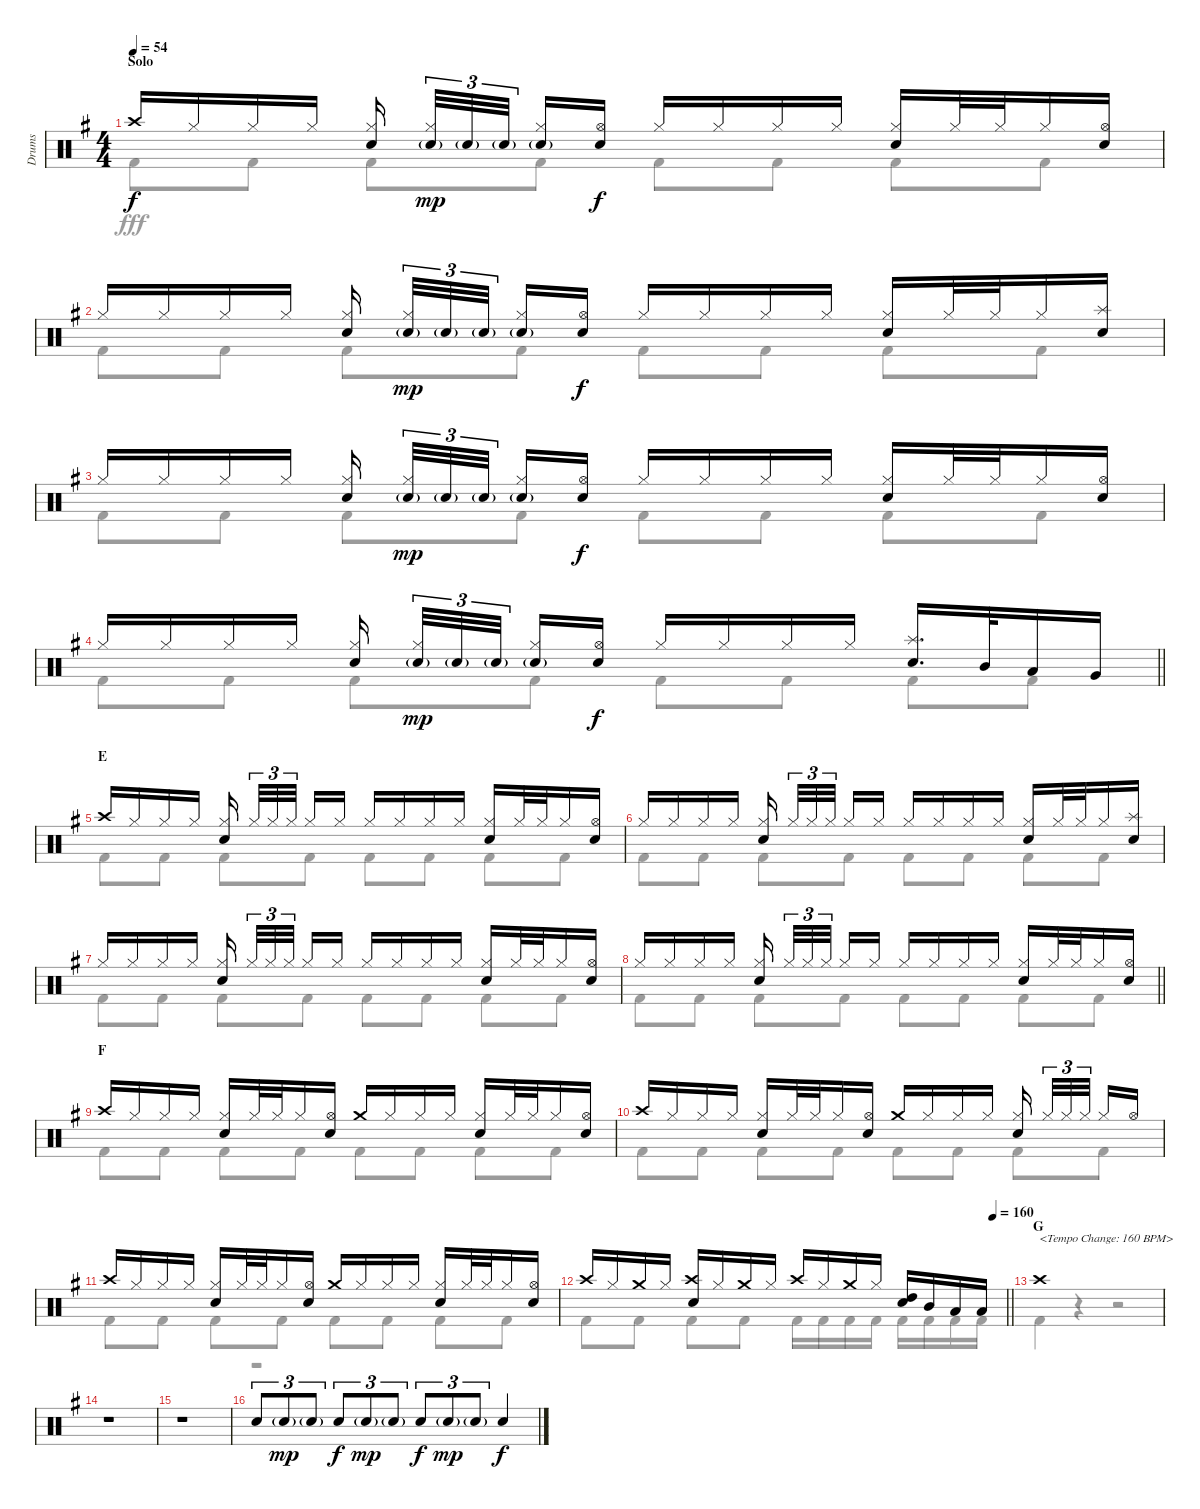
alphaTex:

\track ("Drums" "Drums") {instrument percussion}
\staff {score}
\articulation defaults
\voice
\ts (4 4)
\section ("" "Solo")
\tempo 54
\clef neutral
\ks g "Crash high (hit)".16{dy f} "Hi-Hat (closed)".16 "Hi-Hat (closed)".16 "Hi-Hat (closed)".16
("Hi-Hat (closed)" "Snare (hit) 2").16{beam splitsecondary} ("Hi-Hat (closed)" "Snare (hit) 2"{g}).32{tu (3 2) dy mp} "Snare (hit) 2"{g}.32{tu (3 2)} "Snare (hit) 2"{g}.32{tu (3 2) beam splitsecondary} ("Hi-Hat (closed)" "Snare (hit) 2"{g}).16 ("Hi-Hat (open)" "Snare (hit) 2").16{dy f} "Hi-Hat (closed)".16 "Hi-Hat (closed)".16 "Hi-Hat (closed)".16 "Hi-Hat (closed)".16 ("Hi-Hat (closed)" "Snare (hit) 2").16 "Hi-Hat (closed)".32 "Hi-Hat (closed)".32 "Hi-Hat (closed)".16 ("Hi-Hat (open)" "Snare (hit) 2").16 |
"Hi-Hat (closed)".16 "Hi-Hat (closed)".16 "Hi-Hat (closed)".16 "Hi-Hat (closed)".16 ("Hi-Hat (closed)" "Snare (hit) 2").16{beam splitsecondary} ("Hi-Hat (closed)" "Snare (hit) 2"{g}).32{tu (3 2) dy mp} "Snare (hit) 2"{g}.32{tu (3 2)} "Snare (hit) 2"{g}.32{tu (3 2) beam splitsecondary} ("Hi-Hat (closed)" "Snare (hit) 2"{g}).16 ("Hi-Hat (open)" "Snare (hit) 2").16{dy f} "Hi-Hat (closed)".16 "Hi-Hat (closed)".16 "Hi-Hat (closed)".16 "Hi-Hat (closed)".16 ("Hi-Hat (closed)" "Snare (hit) 2").16 "Hi-Hat (closed)".32 "Hi-Hat (closed)".32 "Hi-Hat (closed)".16 ("Splash (hit)" "Snare (hit) 2").16 |
"Hi-Hat (closed)".16 "Hi-Hat (closed)".16 "Hi-Hat (closed)".16 "Hi-Hat (closed)".16 ("Hi-Hat (closed)" "Snare (hit) 2").16{beam splitsecondary} ("Hi-Hat (closed)" "Snare (hit) 2"{g}).32{tu (3 2) dy mp} "Snare (hit) 2"{g}.32{tu (3 2)} "Snare (hit) 2"{g}.32{tu (3 2) beam splitsecondary} ("Hi-Hat (closed)" "Snare (hit) 2"{g}).16 ("Hi-Hat (open)" "Snare (hit) 2").16{dy f} "Hi-Hat (closed)".16 "Hi-Hat (closed)".16 "Hi-Hat (closed)".16 "Hi-Hat (closed)".16 ("Hi-Hat (closed)" "Snare (hit) 2").16 "Hi-Hat (closed)".32 "Hi-Hat (closed)".32 "Hi-Hat (closed)".16 ("Hi-Hat (open)" "Snare (hit) 2").16 |
\barLineRight lightlight "Hi-Hat (closed)".16 "Hi-Hat (closed)".16 "Hi-Hat (closed)".16 "Hi-Hat (closed)".16
("Hi-Hat (closed)" "Snare (hit) 2").16{beam splitsecondary} ("Hi-Hat (closed)" "Snare (hit) 2"{g}).32{tu (3 2) dy mp} "Snare (hit) 2"{g}.32{tu (3 2)} "Snare (hit) 2"{g}.32{tu (3 2) beam splitsecondary} ("Hi-Hat (closed)" "Snare (hit) 2"{g}).16 ("Hi-Hat (open)" "Snare (hit) 2").16{dy f} "Hi-Hat (closed)".16 "Hi-Hat (closed)".16 "Hi-Hat (closed)".16 "Hi-Hat (closed)".16 ("Splash (hit)" "Snare (hit) 2").16{d} "Mid Tom (hit)".32 "Low Tom (hit)".16 "Very Low Tom (hit)".16 |
\section ("" "E")
"Crash high (hit)".16 "Hi-Hat (closed)".16 "Hi-Hat (closed)".16 "Hi-Hat (closed)".16 ("Hi-Hat (closed)" "Snare (hit) 2").16{beam splitsecondary} "Hi-Hat (closed)".32{tu (3 2)} "Hi-Hat (closed)".32{tu (3 2)} "Hi-Hat (closed)".32{tu (3 2) beam splitsecondary} "Hi-Hat (closed)".16 "Hi-Hat (closed)".16 "Hi-Hat (closed)".16 "Hi-Hat (closed)".16 "Hi-Hat (closed)".16 "Hi-Hat (closed)".16 ("Hi-Hat (closed)" "Snare (hit) 2").16 "Hi-Hat (closed)".32 "Hi-Hat (closed)".32 "Hi-Hat (closed)".16 ("Hi-Hat (open)" "Snare (hit) 2").16 |
"Hi-Hat (closed)".16 "Hi-Hat (closed)".16 "Hi-Hat (closed)".16 "Hi-Hat (closed)".16 ("Hi-Hat (closed)" "Snare (hit) 2").16{beam splitsecondary} "Hi-Hat (closed)".32{tu (3 2)} "Hi-Hat (closed)".32{tu (3 2)} "Hi-Hat (closed)".32{tu (3 2) beam splitsecondary} "Hi-Hat (closed)".16 "Hi-Hat (closed)".16 "Hi-Hat (closed)".16 "Hi-Hat (closed)".16 "Hi-Hat (closed)".16 "Hi-Hat (closed)".16 ("Hi-Hat (closed)" "Snare (hit) 2").16 "Hi-Hat (closed)".32 "Hi-Hat (closed)".32 "Hi-Hat (closed)".16 ("Splash (hit)" "Snare (hit) 2").16 |
"Hi-Hat (closed)".16 "Hi-Hat (closed)".16 "Hi-Hat (closed)".16 "Hi-Hat (closed)".16 ("Hi-Hat (closed)" "Snare (hit) 2").16{beam splitsecondary} "Hi-Hat (closed)".32{tu (3 2)} "Hi-Hat (closed)".32{tu (3 2)} "Hi-Hat (closed)".32{tu (3 2) beam splitsecondary} "Hi-Hat (closed)".16 "Hi-Hat (closed)".16 "Hi-Hat (closed)".16 "Hi-Hat (closed)".16 "Hi-Hat (closed)".16 "Hi-Hat (closed)".16 ("Hi-Hat (closed)" "Snare (hit) 2").16 "Hi-Hat (closed)".32 "Hi-Hat (closed)".32 "Hi-Hat (closed)".16 ("Hi-Hat (open)" "Snare (hit) 2").16 |
\barLineRight lightlight "Hi-Hat (closed)".16 "Hi-Hat (closed)".16 "Hi-Hat (closed)".16 "Hi-Hat (closed)".16
("Hi-Hat (closed)" "Snare (hit) 2").16{beam splitsecondary} "Hi-Hat (closed)".32{tu (3 2)} "Hi-Hat (closed)".32{tu (3 2)} "Hi-Hat (closed)".32{tu (3 2) beam splitsecondary} "Hi-Hat (closed)".16 "Hi-Hat (closed)".16 "Hi-Hat (closed)".16 "Hi-Hat (closed)".16 "Hi-Hat (closed)".16 "Hi-Hat (closed)".16 ("Hi-Hat (closed)" "Snare (hit) 2").16 "Hi-Hat (closed)".32 "Hi-Hat (closed)".32 "Hi-Hat (closed)".16 ("Hi-Hat (open)" "Snare (hit) 2").16 |
\section ("" "F")
"Crash high (hit)".16 "Hi-Hat (closed)".16 "Hi-Hat (closed)".16 "Hi-Hat (closed)".16 ("Hi-Hat (closed)" "Snare (hit) 2").16 "Hi-Hat (closed)".32 "Hi-Hat (closed)".32 "Hi-Hat (closed)".16 ("Hi-Hat (open)" "Snare (hit) 2").16 "Crash medium (hit)".16 "Hi-Hat (closed)".16 "Hi-Hat (closed)".16 "Hi-Hat (closed)".16 ("Hi-Hat (closed)" "Snare (hit) 2").16 "Hi-Hat (closed)".32 "Hi-Hat (closed)".32 "Hi-Hat (closed)".16 ("Hi-Hat (open)" "Snare (hit) 2").16 |
"Crash high (hit)".16 "Hi-Hat (closed)".16 "Hi-Hat (closed)".16 "Hi-Hat (closed)".16 ("Hi-Hat (closed)" "Snare (hit) 2").16 "Hi-Hat (closed)".32 "Hi-Hat (closed)".32 "Hi-Hat (closed)".16 ("Hi-Hat (open)" "Snare (hit) 2").16 "Crash medium (hit)".16 "Hi-Hat (closed)".16 "Hi-Hat (closed)".16 "Hi-Hat (closed)".16 ("Hi-Hat (closed)" "Snare (hit) 2").16{beam splitsecondary} "Hi-Hat (closed)".32{tu (3 2)} "Hi-Hat (closed)".32{tu (3 2)} "Hi-Hat (closed)".32{tu (3 2) beam splitsecondary} "Hi-Hat (closed)".16 "Hi-Hat (open)".16 |
"Crash high (hit)".16 "Hi-Hat (closed)".16 "Hi-Hat (closed)".16 "Hi-Hat (closed)".16 ("Hi-Hat (closed)" "Snare (hit) 2").16 "Hi-Hat (closed)".32 "Hi-Hat (closed)".32 "Hi-Hat (closed)".16 ("Hi-Hat (open)" "Snare (hit) 2").16 "Crash medium (hit)".16 "Hi-Hat (closed)".16 "Hi-Hat (closed)".16 "Hi-Hat (closed)".16 ("Hi-Hat (closed)" "Snare (hit) 2").16 "Hi-Hat (closed)".32 "Hi-Hat (closed)".32 "Hi-Hat (closed)".16 ("Hi-Hat (open)" "Snare (hit) 2").16 |
\tempo (160 0.96875)
\barLineRight lightlight "Crash high (hit)".16 "Hi-Hat (closed)".16 "Crash medium (hit)".16 "Hi-Hat (closed)".16
("Crash high (hit)" "Snare (hit) 2").16 "Hi-Hat (closed)".16 "Crash medium (hit)".16 "Hi-Hat (closed)".16 "Crash high (hit)".16 "Hi-Hat (closed)".16 "Crash medium (hit)".16 "Hi-Hat (closed)".16 ("High Tom (hit)" "Snare (hit) 2").16 "Mid Tom (hit)".16 "Low Tom (hit)".16 "Low Tom (hit)".16 |
\section ("" "G")
\ks eminor "Crash high (hit)".1{txt "<Tempo Change: 160 BPM>"}
|
r.1 |
r.1 |
"Snare (hit) 2".8{tu (3 2)} "Snare (hit) 2"{g}.8{tu (3 2) dy mp} "Snare (hit) 2"{g}.8{tu (3 2)} "Snare (hit) 2".8{tu (3 2) dy f} "Snare (hit) 2"{g}.8{tu (3 2) dy mp} "Snare (hit) 2"{g}.8{tu (3 2)} "Snare (hit) 2".8{tu (3 2) dy f} "Snare (hit) 2"{g}.8{tu (3 2) dy mp} "Snare (hit) 2"{g}.8{tu (3 2)} "Snare (hit) 2".4{dy f}
\voice
\clef neutral
\ottava regular
\simile none
\ks g "Kick (hit) 2".8{dy fff} "Kick (hit) 2".8 "Kick (hit) 2".8 "Kick (hit) 2".8 "Kick (hit) 2".8 "Kick (hit) 2".8 "Kick (hit) 2".8 "Kick (hit) 2".8
|
"Kick (hit) 2".8 "Kick (hit) 2".8 "Kick (hit) 2".8 "Kick (hit) 2".8 "Kick (hit) 2".8 "Kick (hit) 2".8 "Kick (hit) 2".8 "Kick (hit) 2".8 |
"Kick (hit) 2".8 "Kick (hit) 2".8 "Kick (hit) 2".8 "Kick (hit) 2".8 "Kick (hit) 2".8 "Kick (hit) 2".8 "Kick (hit) 2".8 "Kick (hit) 2".8 |
\barLineRight lightlight "Kick (hit) 2".8 "Kick (hit) 2".8 "Kick (hit) 2".8 "Kick (hit) 2".8 "Kick (hit) 2".8 "Kick (hit) 2".8 "Kick (hit) 2".8 "Kick (hit) 2".8
|
"Kick (hit) 2".8 "Kick (hit) 2".8 "Kick (hit) 2".8 "Kick (hit) 2".8 "Kick (hit) 2".8 "Kick (hit) 2".8 "Kick (hit) 2".8 "Kick (hit) 2".8 |
"Kick (hit) 2".8 "Kick (hit) 2".8 "Kick (hit) 2".8 "Kick (hit) 2".8 "Kick (hit) 2".8 "Kick (hit) 2".8 "Kick (hit) 2".8 "Kick (hit) 2".8 |
"Kick (hit) 2".8 "Kick (hit) 2".8 "Kick (hit) 2".8 "Kick (hit) 2".8 "Kick (hit) 2".8 "Kick (hit) 2".8 "Kick (hit) 2".8 "Kick (hit) 2".8 |
\barLineRight lightlight "Kick (hit) 2".8 "Kick (hit) 2".8 "Kick (hit) 2".8 "Kick (hit) 2".8 "Kick (hit) 2".8 "Kick (hit) 2".8 "Kick (hit) 2".8 "Kick (hit) 2".8
|
"Kick (hit) 2".8 "Kick (hit) 2".8 "Kick (hit) 2".8 "Kick (hit) 2".8 "Kick (hit) 2".8 "Kick (hit) 2".8 "Kick (hit) 2".8 "Kick (hit) 2".8 |
"Kick (hit) 2".8 "Kick (hit) 2".8 "Kick (hit) 2".8 "Kick (hit) 2".8 "Kick (hit) 2".8 "Kick (hit) 2".8 "Kick (hit) 2".8 "Kick (hit) 2".8 |
"Kick (hit) 2".8 "Kick (hit) 2".8 "Kick (hit) 2".8 "Kick (hit) 2".8 "Kick (hit) 2".8 "Kick (hit) 2".8 "Kick (hit) 2".8 "Kick (hit) 2".8 |
\barLineRight lightlight "Kick (hit) 2".8 "Kick (hit) 2".8 "Kick (hit) 2".8 "Kick (hit) 2".8 "Kick (hit) 2".16 "Kick (hit) 2".16 "Kick (hit) 2".16 "Kick (hit) 2".16 "Kick (hit) 2".16 "Kick (hit) 2".16 "Kick (hit) 2".16 "Kick (hit) 2".16
|
\ks eminor "Kick (hit) 2".4
r.4 r.2 |
r.1 |
r.1 |
r.1
